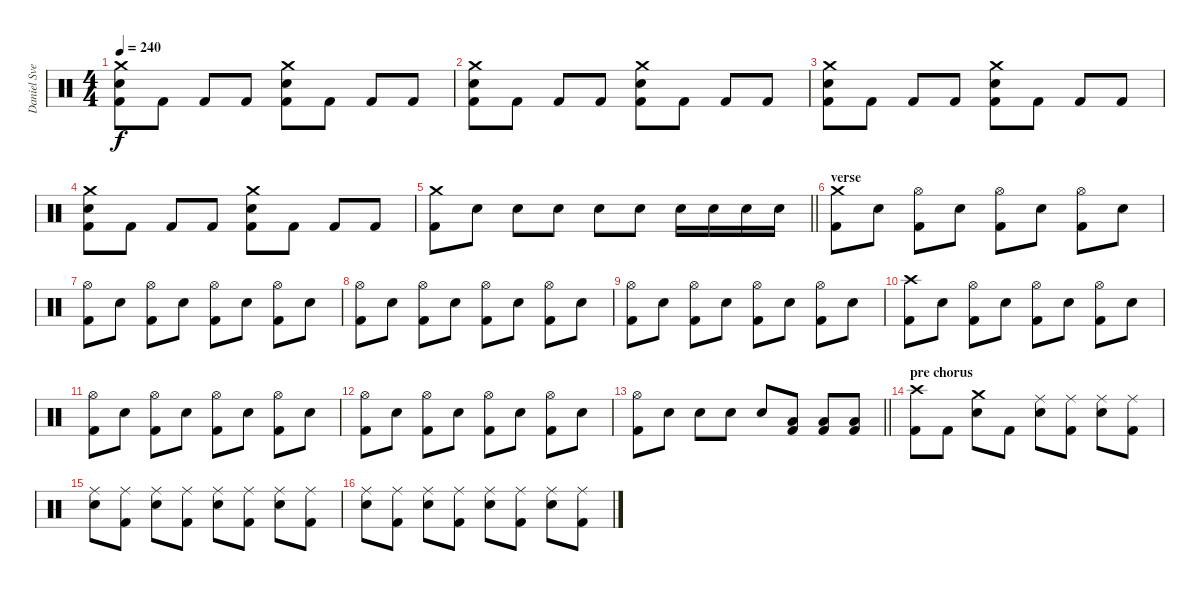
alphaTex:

\track ("Daniel Svensson" "Daniel Sve") {instrument percussion}
\staff {score}
\articulation defaults
\ts (4 4)
\tempo 240
\clef neutral
\ks c
("Crash medium (hit)" "Electric Snare (hit)" "Kick (hit) 2").8{dy f} "Kick (hit) 2".8 "Kick (hit) 2".8 "Kick (hit) 2".8 ("Crash medium (hit)" "Electric Snare (hit)" "Kick (hit) 2").8 "Kick (hit) 2".8 "Kick (hit) 2".8 "Kick (hit) 2".8 |
("Crash medium (hit)" "Electric Snare (hit)" "Kick (hit) 2").8 "Kick (hit) 2".8 "Kick (hit) 2".8 "Kick (hit) 2".8 ("Crash medium (hit)" "Electric Snare (hit)" "Kick (hit) 2").8 "Kick (hit) 2".8 "Kick (hit) 2".8 "Kick (hit) 2".8 |
("Crash medium (hit)" "Electric Snare (hit)" "Kick (hit) 2").8 "Kick (hit) 2".8 "Kick (hit) 2".8 "Kick (hit) 2".8 ("Crash medium (hit)" "Electric Snare (hit)" "Kick (hit) 2").8 "Kick (hit) 2".8 "Kick (hit) 2".8 "Kick (hit) 2".8 |
("Crash medium (hit)" "Electric Snare (hit)" "Kick (hit) 2").8 "Kick (hit) 2".8 "Kick (hit) 2".8 "Kick (hit) 2".8 ("Crash medium (hit)" "Electric Snare (hit)" "Kick (hit) 2").8 "Kick (hit) 2".8 "Kick (hit) 2".8 "Kick (hit) 2".8 |
\barLineRight lightlight
("Crash medium (hit)" "Kick (hit) 2").8 "Electric Snare (hit)".8 "Electric Snare (hit)".8 "Electric Snare (hit)".8 "Electric Snare (hit)".8 "Electric Snare (hit)".8 "Electric Snare (hit)".16 "Electric Snare (hit)".16 "Electric Snare (hit)".16 "Electric Snare (hit)".16 |
\section ("" "verse")
("Crash medium (hit)" "Kick (hit) 2").8 "Electric Snare (hit)".8 ("Hi-Hat (open)" "Kick (hit) 2").8 "Electric Snare (hit)".8 ("Hi-Hat (open)" "Kick (hit) 2").8 "Electric Snare (hit)".8 ("Hi-Hat (open)" "Kick (hit) 2").8 "Electric Snare (hit)".8 |
("Hi-Hat (open)" "Kick (hit) 2").8 "Electric Snare (hit)".8 ("Hi-Hat (open)" "Kick (hit) 2").8 "Electric Snare (hit)".8 ("Hi-Hat (open)" "Kick (hit) 2").8 "Electric Snare (hit)".8 ("Hi-Hat (open)" "Kick (hit) 2").8 "Electric Snare (hit)".8 |
("Hi-Hat (open)" "Kick (hit) 2").8 "Electric Snare (hit)".8 ("Hi-Hat (open)" "Kick (hit) 2").8 "Electric Snare (hit)".8 ("Hi-Hat (open)" "Kick (hit) 2").8 "Electric Snare (hit)".8 ("Hi-Hat (open)" "Kick (hit) 2").8 "Electric Snare (hit)".8 |
("Hi-Hat (open)" "Kick (hit) 2").8 "Electric Snare (hit)".8 ("Hi-Hat (open)" "Kick (hit) 2").8 "Electric Snare (hit)".8 ("Hi-Hat (open)" "Kick (hit) 2").8 "Electric Snare (hit)".8 ("Hi-Hat (open)" "Kick (hit) 2").8 "Electric Snare (hit)".8 |
("Crash high (hit)" "Kick (hit) 2").8 "Electric Snare (hit)".8 ("Hi-Hat (open)" "Kick (hit) 2").8 "Electric Snare (hit)".8 ("Hi-Hat (open)" "Kick (hit) 2").8 "Electric Snare (hit)".8 ("Hi-Hat (open)" "Kick (hit) 2").8 "Electric Snare (hit)".8 |
("Hi-Hat (open)" "Kick (hit) 2").8 "Electric Snare (hit)".8 ("Hi-Hat (open)" "Kick (hit) 2").8 "Electric Snare (hit)".8 ("Hi-Hat (open)" "Kick (hit) 2").8 "Electric Snare (hit)".8 ("Hi-Hat (open)" "Kick (hit) 2").8 "Electric Snare (hit)".8 |
("Hi-Hat (open)" "Kick (hit) 2").8 "Electric Snare (hit)".8 ("Hi-Hat (open)" "Kick (hit) 2").8 "Electric Snare (hit)".8 ("Hi-Hat (open)" "Kick (hit) 2").8 "Electric Snare (hit)".8 ("Hi-Hat (open)" "Kick (hit) 2").8 "Electric Snare (hit)".8 |
\barLineRight lightlight
("Hi-Hat (open)" "Kick (hit) 2").8 "Electric Snare (hit)".8 "Electric Snare (hit)".8 "Electric Snare (hit)".8 "Electric Snare (hit)".8 ("Low Tom (hit)" "Kick (hit) 2").8 ("Low Tom (hit)" "Kick (hit) 2").8 ("Low Tom (hit)" "Kick (hit) 2").8 |
\section ("" "pre chorus")
("Crash high (hit)" "Kick (hit) 2").8 "Kick (hit) 2".8 ("Crash medium (hit)" "Electric Snare (hit)").8 "Kick (hit) 2".8 ("Ride (middle)" "Electric Snare (hit)").8 ("Ride (middle)" "Kick (hit) 2").8 ("Ride (middle)" "Electric Snare (hit)").8 ("Ride (middle)" "Kick (hit) 2").8 |
("Ride (middle)" "Electric Snare (hit)").8 ("Ride (middle)" "Kick (hit) 2").8 ("Ride (middle)" "Electric Snare (hit)").8 ("Ride (middle)" "Kick (hit) 2").8 ("Ride (middle)" "Electric Snare (hit)").8 ("Ride (middle)" "Kick (hit) 2").8 ("Ride (middle)" "Electric Snare (hit)").8 ("Ride (middle)" "Kick (hit) 2").8 |
("Ride (middle)" "Electric Snare (hit)").8 ("Ride (middle)" "Kick (hit) 2").8 ("Ride (middle)" "Electric Snare (hit)").8 ("Ride (middle)" "Kick (hit) 2").8 ("Ride (middle)" "Electric Snare (hit)").8 ("Ride (middle)" "Kick (hit) 2").8 ("Ride (middle)" "Electric Snare (hit)").8 ("Ride (middle)" "Kick (hit) 2").8
